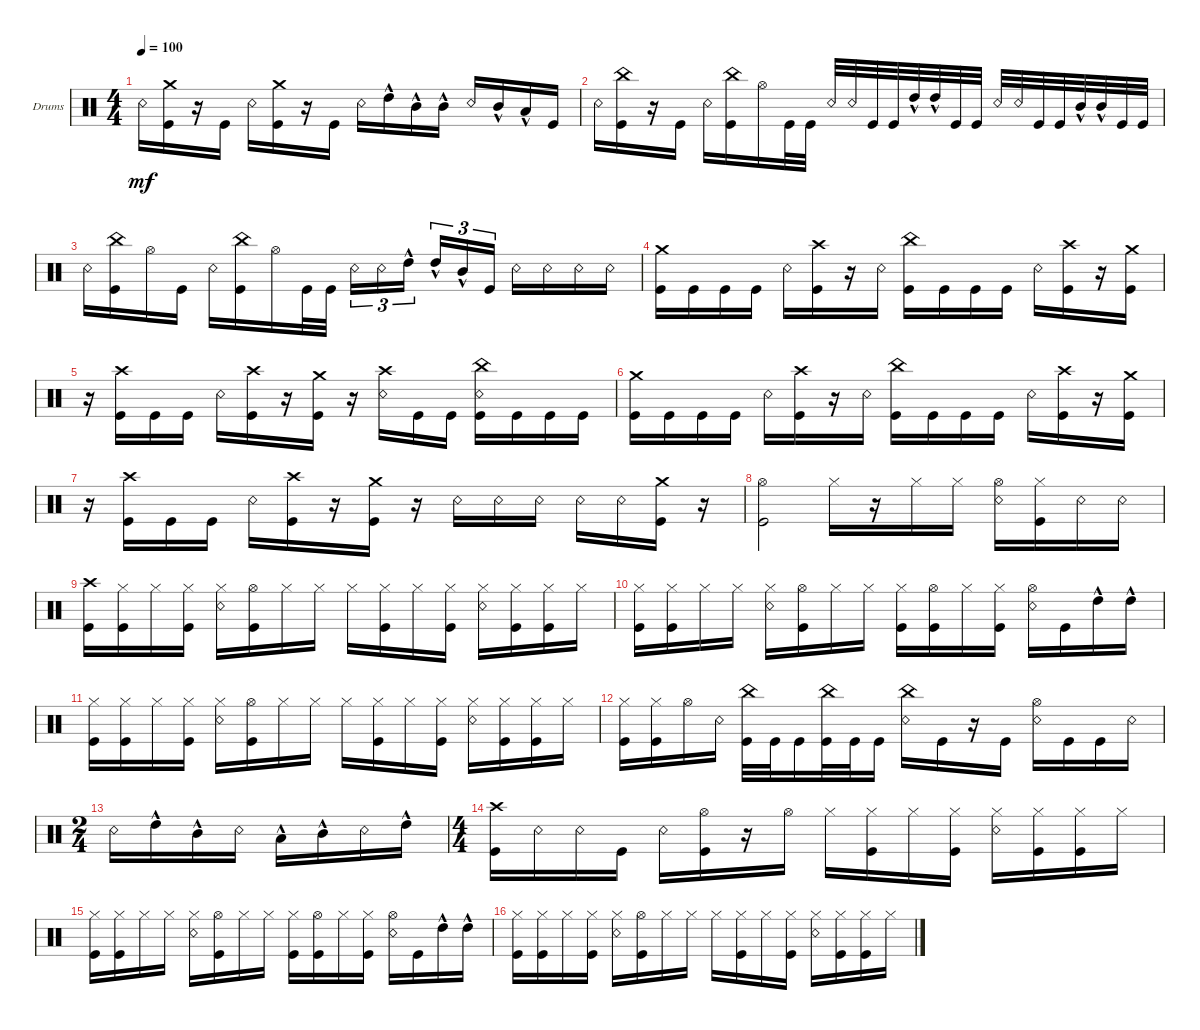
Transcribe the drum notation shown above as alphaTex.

\defaultSystemsLayout 4
\bracketExtendMode groupsimilarinstruments
\firstSystemTrackNameOrientation horizontal
\otherSystemsTrackNameOrientation horizontal
\track ("Drumkit" "Drums") {instrument percussion}
\staff {score}
\articulation defaults
\ts (4 4)
\tempo 100
\clef neutral
\ks c "Snare (rim shot)".16{dy mf}
("Kick (hit)" "Crash medium (hit)").16 r.16 "Kick (hit)".16 "Snare (rim shot)".16 ("Kick (hit)" "Crash medium (hit)").16 r.16 "Kick (hit)".16 "Snare (rim shot)".16 "High Tom (hit)"{hac}.16 "Mid Tom (hit)"{hac}.16 "Mid Tom (hit)"{hac}.16 "Snare (rim shot)".16 "Mid Tom (hit)"{hac}.16 "Low Tom (hit)"{hac}.16 "Kick (hit)".16 |
"Snare (rim shot)".16 ("China (hit)" "Kick (hit)").16 r.16 "Kick (hit)".16 "Snare (rim shot)".16 ("China (hit)" "Kick (hit)").16 "Hi-Hat (open)".16 "Kick (hit)".32 "Kick (hit)".32 "Snare (rim shot)".32 "Snare (rim shot)".32 "Kick (hit)".32 "Kick (hit)".32 "High Tom (hit)"{hac}.32 "High Tom (hit)"{hac}.32 "Kick (hit)".32 "Kick (hit)".32 "Snare (rim shot)".32 "Snare (rim shot)".32 "Kick (hit)".32 "Kick (hit)".32 "Mid Tom (hit)"{hac}.32 "Mid Tom (hit)"{hac}.32 "Kick (hit)".32 "Kick (hit)".32 |
"Snare (rim shot)".16 ("China (hit)" "Kick (hit)").16 "Hi-Hat (open)".16 "Kick (hit)".16 "Snare (rim shot)".16 ("China (hit)" "Kick (hit)").16 "Hi-Hat (open)".16 "Kick (hit)".32 "Kick (hit)".32 "Snare (rim shot)".16{tu (3 2)} "Snare (rim shot)".16{tu (3 2)} "High Tom (hit)"{hac}.16{tu (3 2)} "High Tom (hit)"{hac}.16{tu (3 2)} "Mid Tom (hit)"{hac}.16{tu (3 2)} "Kick (hit)".16{tu (3 2)} "Snare (rim shot)".16 "Snare (rim shot)".16 "Snare (rim shot)".16 "Snare (rim shot)".16 |
("Kick (hit)" "Crash medium (hit)").16 "Kick (hit)".16 "Kick (hit)".16 "Kick (hit)".16 "Snare (rim shot)".16 ("Kick (hit)" "Crash high (hit)").16 r.16 "Snare (rim shot)".16 ("Kick (hit)" "China (hit)").16 "Kick (hit)".16 "Kick (hit)".16 "Kick (hit)".16 "Snare (rim shot)".16 ("Kick (hit)" "Crash high (hit)").16 r.16 ("Kick (hit)" "Crash medium (hit)").16 |
r.16 ("Kick (hit)" "Crash high (hit)").16 "Kick (hit)".16 "Kick (hit)".16 "Snare (rim shot)".16 ("Kick (hit)" "Crash high (hit)").16 r.16 ("Kick (hit)" "Crash medium (hit)").16 r.16 ("Snare (rim shot)" "Crash high (hit)").16 "Kick (hit)".16 "Kick (hit)".16 ("Snare (rim shot)" "China (hit)" "Kick (hit)").16 "Kick (hit)".16 "Kick (hit)".16 "Kick (hit)".16 |
("Kick (hit)" "Crash medium (hit)").16 "Kick (hit)".16 "Kick (hit)".16 "Kick (hit)".16 "Snare (rim shot)".16 ("Kick (hit)" "Crash high (hit)").16 r.16 "Snare (rim shot)".16 ("Kick (hit)" "China (hit)").16 "Kick (hit)".16 "Kick (hit)".16 "Kick (hit)".16 "Snare (rim shot)".16 ("Kick (hit)" "Crash high (hit)").16 r.16 ("Kick (hit)" "Crash medium (hit)").16 |
r.16 ("Kick (hit)" "Crash high (hit)").16 "Kick (hit)".16 "Kick (hit)".16 "Snare (rim shot)".16 ("Kick (hit)" "Crash high (hit)").16 r.16 ("Kick (hit)" "Crash medium (hit)").16 r.16 "Snare (rim shot)".16 "Snare (rim shot)".16 "Snare (rim shot)".16 "Snare (rim shot)".16 "Snare (rim shot)".16 ("Kick (hit)" "Crash medium (hit)").16 r.16 |
("Kick (hit)" "Hi-Hat (open)").2 "Hi-Hat (closed)".16 r.16 "Hi-Hat (closed)".16 "Hi-Hat (closed)".16 ("Snare (rim shot)" "Hi-Hat (open)").16 ("Kick (hit)" "Hi-Hat (closed)").16 "Snare (rim shot)".16 "Snare (rim shot)".16 |
("Kick (hit)" "Crash high (hit)").16 ("Kick (hit)" "Hi-Hat (closed)").16 "Hi-Hat (closed)".16 ("Hi-Hat (closed)" "Kick (hit)").16 ("Hi-Hat (closed)" "Snare (rim shot)").16 ("Kick (hit)" "Hi-Hat (open)").16 "Hi-Hat (closed)".16 "Hi-Hat (closed)".16 "Hi-Hat (closed)".16 ("Hi-Hat (closed)" "Kick (hit)").16 "Hi-Hat (closed)".16 ("Hi-Hat (closed)" "Kick (hit)").16 ("Hi-Hat (closed)" "Snare (rim shot)").16 ("Hi-Hat (closed)" "Kick (hit)").16 ("Hi-Hat (closed)" "Kick (hit)").16 "Hi-Hat (closed)".16 |
("Kick (hit)" "Hi-Hat (closed)").16 ("Kick (hit)" "Hi-Hat (closed)").16 "Hi-Hat (closed)".16 "Hi-Hat (closed)".16 ("Hi-Hat (closed)" "Snare (rim shot)").16 ("Kick (hit)" "Hi-Hat (open)").16 "Hi-Hat (closed)".16 "Hi-Hat (closed)".16 ("Hi-Hat (closed)" "Kick (hit)").16 ("Hi-Hat (open)" "Kick (hit)").16 "Hi-Hat (closed)".16 ("Hi-Hat (closed)" "Kick (hit)").16 ("Hi-Hat (open)" "Snare (rim shot)").16 "Kick (hit)".16 "High Tom (hit)"{hac}.16 "High Tom (hit)"{hac}.16 |
("Kick (hit)" "Hi-Hat (closed)").16 ("Kick (hit)" "Hi-Hat (closed)").16 "Hi-Hat (closed)".16 ("Hi-Hat (closed)" "Kick (hit)").16 ("Hi-Hat (closed)" "Snare (rim shot)").16 ("Kick (hit)" "Hi-Hat (open)").16 "Hi-Hat (closed)".16 "Hi-Hat (closed)".16 "Hi-Hat (closed)".16 ("Hi-Hat (closed)" "Kick (hit)").16 "Hi-Hat (closed)".16 ("Hi-Hat (closed)" "Kick (hit)").16 ("Hi-Hat (closed)" "Snare (rim shot)").16 ("Hi-Hat (closed)" "Kick (hit)").16 ("Hi-Hat (closed)" "Kick (hit)").16 "Hi-Hat (closed)".16 |
("Kick (hit)" "Hi-Hat (closed)").16 ("Kick (hit)" "Hi-Hat (closed)").16 "Hi-Hat (open)".16 "Snare (rim shot)".16 ("Kick (hit)" "China (hit)").32 "Kick (hit)".32 "Kick (hit)".16 ("Kick (hit)" "China (hit)").32 "Kick (hit)".32 "Kick (hit)".16 ("China (hit)" "Snare (rim shot)").16 "Kick (hit)".16 r.16 "Kick (hit)".16 ("Hi-Hat (open)" "Snare (rim shot)").16 "Kick (hit)".16 "Kick (hit)".16 "Snare (rim shot)".16 |
\ts (2 4)
"Snare (rim shot)".16 "High Tom (hit)"{hac}.16 "Mid Tom (hit)"{hac}.16 "Snare (rim shot)".16 "Low Tom (hit)"{hac}.16 "Mid Tom (hit)"{hac}.16 "Snare (rim shot)".16 "High Tom (hit)"{hac}.16 |
\ts (4 4)
("Kick (hit)" "Crash high (hit)").16 "Snare (rim shot)".16 "Snare (rim shot)".16 "Kick (hit)".16 "Snare (rim shot)".16 ("Kick (hit)" "Hi-Hat (open)").16 r.16 "Hi-Hat (open)".16 "Hi-Hat (closed)".16 ("Hi-Hat (closed)" "Kick (hit)").16 "Hi-Hat (closed)".16 ("Hi-Hat (closed)" "Kick (hit)").16 ("Hi-Hat (closed)" "Snare (rim shot)").16 ("Hi-Hat (closed)" "Kick (hit)").16 ("Hi-Hat (closed)" "Kick (hit)").16 "Hi-Hat (closed)".16 |
("Kick (hit)" "Hi-Hat (closed)").16 ("Kick (hit)" "Hi-Hat (closed)").16 "Hi-Hat (closed)".16 "Hi-Hat (closed)".16 ("Hi-Hat (closed)" "Snare (rim shot)").16 ("Kick (hit)" "Hi-Hat (open)").16 "Hi-Hat (closed)".16 "Hi-Hat (closed)".16 ("Hi-Hat (closed)" "Kick (hit)").16 ("Hi-Hat (open)" "Kick (hit)").16 "Hi-Hat (closed)".16 ("Hi-Hat (closed)" "Kick (hit)").16 ("Hi-Hat (open)" "Snare (rim shot)").16 "Kick (hit)".16 "High Tom (hit)"{hac}.16 "High Tom (hit)"{hac}.16 |
("Kick (hit)" "Hi-Hat (closed)").16 ("Kick (hit)" "Hi-Hat (closed)").16 "Hi-Hat (closed)".16 ("Hi-Hat (closed)" "Kick (hit)").16 ("Hi-Hat (closed)" "Snare (rim shot)").16 ("Kick (hit)" "Hi-Hat (open)").16 "Hi-Hat (closed)".16 "Hi-Hat (closed)".16 "Hi-Hat (closed)".16 ("Hi-Hat (closed)" "Kick (hit)").16 "Hi-Hat (closed)".16 ("Hi-Hat (closed)" "Kick (hit)").16 ("Hi-Hat (closed)" "Snare (rim shot)").16 ("Hi-Hat (closed)" "Kick (hit)").16 ("Hi-Hat (closed)" "Kick (hit)").16 "Hi-Hat (closed)".16
